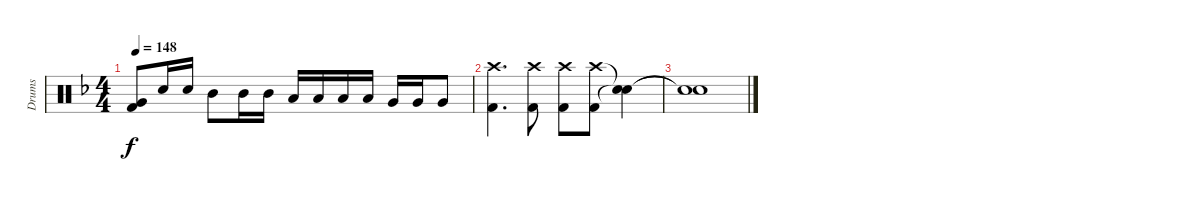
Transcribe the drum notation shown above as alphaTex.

\track ("Drums" "Drums") {instrument percussion}
\staff {score}
\articulation defaults
\ts (4 4)
\tempo 148
\clef neutral
\ks f
("Very Low Tom (hit)" "Kick (hit) 2").8{dy f} "Snare (hit) 2".16 "Snare (hit) 2".16 "Mid Tom (hit)".8 "Mid Tom (hit)".16 "Mid Tom (hit)".16 "Low Tom (hit)".16 "Low Tom (hit)".16 "Low Tom (hit)".16 "Low Tom (hit)".16 "Very Low Tom (hit)".16 "Very Low Tom (hit)".16 "Very Low Tom (hit)".8 |
("Crash high (hit)" "Kick (hit) 2").4{d} ("Crash high (hit)" "Kick (hit) 2").8 ("Crash high (hit)" "Kick (hit) 2").8 ("Crash high (hit)" "Kick (hit) 2").8 ("Snare (hit)"{t} "Snare (hit)"{t}).4 |
("Snare (hit)"{t} "Snare (hit)"{t}).1
